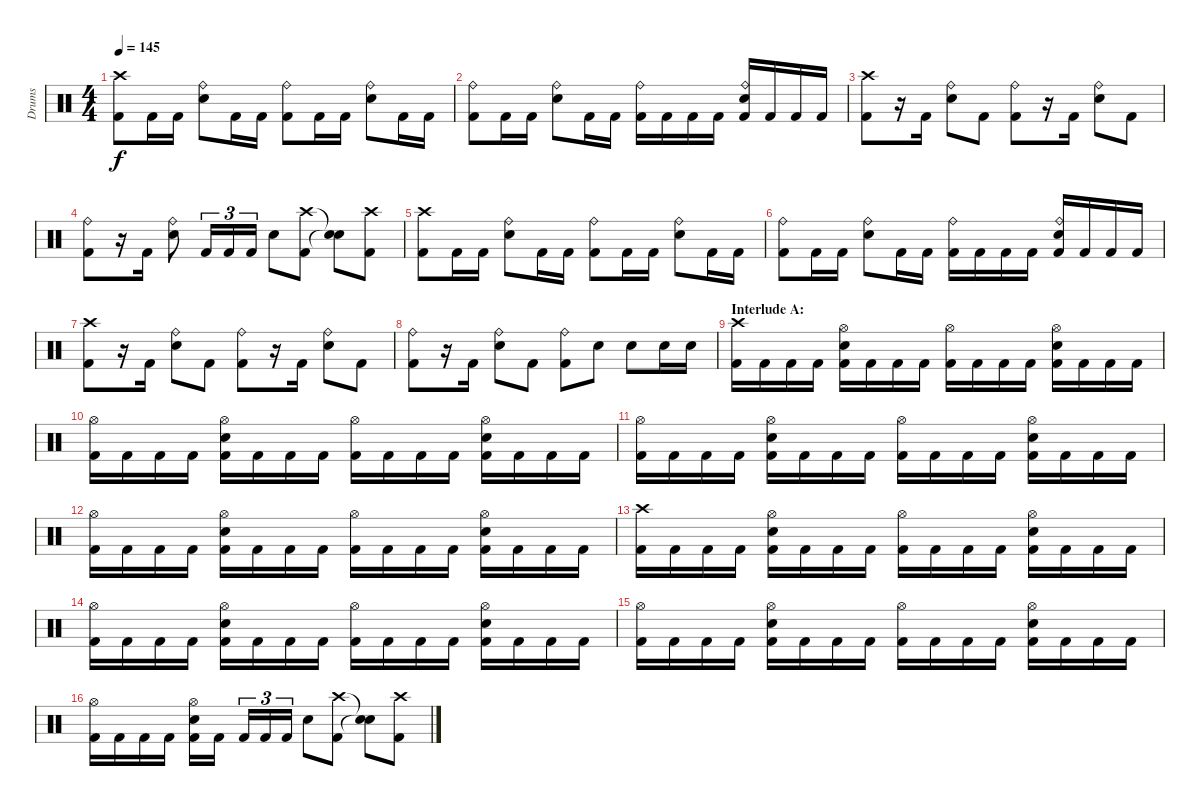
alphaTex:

\track ("Drums" "Drums") {instrument percussion}
\staff {score}
\articulation defaults
\ts (4 4)
\tempo 145
\clef neutral
\ks c
("Crash high (hit)" "Kick (hit) 2").8{dy f} "Kick (hit) 2".16 "Kick (hit) 2".16 ("Ride (bell)" "Snare (hit) 2").8 "Kick (hit) 2".16 "Kick (hit) 2".16 ("Ride (bell)" "Kick (hit) 2").8 "Kick (hit) 2".16 "Kick (hit) 2".16 ("Ride (bell)" "Snare (hit) 2").8 "Kick (hit) 2".16 "Kick (hit) 2".16 |
("Ride (bell)" "Kick (hit) 2").8 "Kick (hit) 2".16 "Kick (hit) 2".16 ("Ride (bell)" "Snare (hit) 2").8 "Kick (hit) 2".16 "Kick (hit) 2".16 ("Ride (bell)" "Kick (hit) 2").16 "Kick (hit) 2".16 "Kick (hit) 2".16 "Kick (hit) 2".16 ("Ride (bell)" "Snare (hit) 2" "Kick (hit) 2").16 "Kick (hit) 2".16 "Kick (hit) 2".16 "Kick (hit) 2".16 |
("Crash high (hit)" "Kick (hit) 2").8 r.16 "Kick (hit) 2".16 ("Ride (bell)" "Snare (hit) 2").8 "Kick (hit) 2".8 ("Ride (bell)" "Kick (hit) 2").8 r.16 "Kick (hit) 2".16 ("Ride (bell)" "Snare (hit) 2").8 "Kick (hit) 2".8 |
("Ride (bell)" "Kick (hit) 2").8 r.16 "Kick (hit) 2".16 ("Ride (bell)" "Snare (hit) 2").8 "Kick (hit) 2".16{tu (3 2)} "Kick (hit) 2".16{tu (3 2)} "Kick (hit) 2".16{tu (3 2)} "Snare (hit) 2".8 ("Crash high (hit)" "Kick (hit) 2").8 ("Snare (hit)"{t} "Snare (hit)"{t}).8 ("Crash high (hit)" "Kick (hit) 2").8 |
("Crash high (hit)" "Kick (hit) 2").8 "Kick (hit) 2".16 "Kick (hit) 2".16 ("Ride (bell)" "Snare (hit) 2").8 "Kick (hit) 2".16 "Kick (hit) 2".16 ("Ride (bell)" "Kick (hit) 2").8 "Kick (hit) 2".16 "Kick (hit) 2".16 ("Ride (bell)" "Snare (hit) 2").8 "Kick (hit) 2".16 "Kick (hit) 2".16 |
("Ride (bell)" "Kick (hit) 2").8 "Kick (hit) 2".16 "Kick (hit) 2".16 ("Ride (bell)" "Snare (hit) 2").8 "Kick (hit) 2".16 "Kick (hit) 2".16 ("Ride (bell)" "Kick (hit) 2").16 "Kick (hit) 2".16 "Kick (hit) 2".16 "Kick (hit) 2".16 ("Ride (bell)" "Snare (hit) 2" "Kick (hit) 2").16 "Kick (hit) 2".16 "Kick (hit) 2".16 "Kick (hit) 2".16 |
("Crash high (hit)" "Kick (hit) 2").8 r.16 "Kick (hit) 2".16 ("Ride (bell)" "Snare (hit) 2").8 "Kick (hit) 2".8 ("Ride (bell)" "Kick (hit) 2").8 r.16 "Kick (hit) 2".16 ("Ride (bell)" "Snare (hit) 2").8 "Kick (hit) 2".8 |
("Ride (bell)" "Kick (hit) 2").8 r.16 "Kick (hit) 2".16 ("Ride (bell)" "Snare (hit) 2").8 "Kick (hit) 2".8 ("Ride (bell)" "Kick (hit) 2").8 "Snare (hit) 2".8 "Snare (hit) 2".8 "Snare (hit) 2".16 "Snare (hit) 2".16 |
\section ("" "Interlude A:")
("Crash high (hit)" "Kick (hit) 2").16 "Kick (hit) 2".16 "Kick (hit) 2".16 "Kick (hit) 2".16 ("Hi-Hat (open)" "Snare (hit) 2" "Kick (hit) 2").16 "Kick (hit) 2".16 "Kick (hit) 2".16 "Kick (hit) 2".16 ("Hi-Hat (open)" "Kick (hit) 2").16 "Kick (hit) 2".16 "Kick (hit) 2".16 "Kick (hit) 2".16 ("Hi-Hat (open)" "Snare (hit) 2" "Kick (hit) 2").16 "Kick (hit) 2".16 "Kick (hit) 2".16 "Kick (hit) 2".16 |
("Hi-Hat (open)" "Kick (hit) 2").16 "Kick (hit) 2".16 "Kick (hit) 2".16 "Kick (hit) 2".16 ("Hi-Hat (open)" "Snare (hit) 2" "Kick (hit) 2").16 "Kick (hit) 2".16 "Kick (hit) 2".16 "Kick (hit) 2".16 ("Hi-Hat (open)" "Kick (hit) 2").16 "Kick (hit) 2".16 "Kick (hit) 2".16 "Kick (hit) 2".16 ("Hi-Hat (open)" "Snare (hit) 2" "Kick (hit) 2").16 "Kick (hit) 2".16 "Kick (hit) 2".16 "Kick (hit) 2".16 |
("Hi-Hat (open)" "Kick (hit) 2").16 "Kick (hit) 2".16 "Kick (hit) 2".16 "Kick (hit) 2".16 ("Hi-Hat (open)" "Snare (hit) 2" "Kick (hit) 2").16 "Kick (hit) 2".16 "Kick (hit) 2".16 "Kick (hit) 2".16 ("Hi-Hat (open)" "Kick (hit) 2").16 "Kick (hit) 2".16 "Kick (hit) 2".16 "Kick (hit) 2".16 ("Hi-Hat (open)" "Snare (hit) 2" "Kick (hit) 2").16 "Kick (hit) 2".16 "Kick (hit) 2".16 "Kick (hit) 2".16 |
("Hi-Hat (open)" "Kick (hit) 2").16 "Kick (hit) 2".16 "Kick (hit) 2".16 "Kick (hit) 2".16 ("Hi-Hat (open)" "Snare (hit) 2" "Kick (hit) 2").16 "Kick (hit) 2".16 "Kick (hit) 2".16 "Kick (hit) 2".16 ("Hi-Hat (open)" "Kick (hit) 2").16 "Kick (hit) 2".16 "Kick (hit) 2".16 "Kick (hit) 2".16 ("Hi-Hat (open)" "Snare (hit) 2" "Kick (hit) 2").16 "Kick (hit) 2".16 "Kick (hit) 2".16 "Kick (hit) 2".16 |
("Crash high (hit)" "Kick (hit) 2").16 "Kick (hit) 2".16 "Kick (hit) 2".16 "Kick (hit) 2".16 ("Hi-Hat (open)" "Snare (hit) 2" "Kick (hit) 2").16 "Kick (hit) 2".16 "Kick (hit) 2".16 "Kick (hit) 2".16 ("Hi-Hat (open)" "Kick (hit) 2").16 "Kick (hit) 2".16 "Kick (hit) 2".16 "Kick (hit) 2".16 ("Hi-Hat (open)" "Snare (hit) 2" "Kick (hit) 2").16 "Kick (hit) 2".16 "Kick (hit) 2".16 "Kick (hit) 2".16 |
("Hi-Hat (open)" "Kick (hit) 2").16 "Kick (hit) 2".16 "Kick (hit) 2".16 "Kick (hit) 2".16 ("Hi-Hat (open)" "Snare (hit) 2" "Kick (hit) 2").16 "Kick (hit) 2".16 "Kick (hit) 2".16 "Kick (hit) 2".16 ("Hi-Hat (open)" "Kick (hit) 2").16 "Kick (hit) 2".16 "Kick (hit) 2".16 "Kick (hit) 2".16 ("Hi-Hat (open)" "Snare (hit) 2" "Kick (hit) 2").16 "Kick (hit) 2".16 "Kick (hit) 2".16 "Kick (hit) 2".16 |
("Hi-Hat (open)" "Kick (hit) 2").16 "Kick (hit) 2".16 "Kick (hit) 2".16 "Kick (hit) 2".16 ("Hi-Hat (open)" "Snare (hit) 2" "Kick (hit) 2").16 "Kick (hit) 2".16 "Kick (hit) 2".16 "Kick (hit) 2".16 ("Hi-Hat (open)" "Kick (hit) 2").16 "Kick (hit) 2".16 "Kick (hit) 2".16 "Kick (hit) 2".16 ("Hi-Hat (open)" "Snare (hit) 2" "Kick (hit) 2").16 "Kick (hit) 2".16 "Kick (hit) 2".16 "Kick (hit) 2".16 |
("Hi-Hat (open)" "Kick (hit) 2").16 "Kick (hit) 2".16 "Kick (hit) 2".16 "Kick (hit) 2".16 ("Hi-Hat (open)" "Snare (hit) 2" "Kick (hit) 2").16 "Kick (hit) 2".16 "Kick (hit) 2".16{tu (3 2)} "Kick (hit) 2".16{tu (3 2)} "Kick (hit) 2".16{tu (3 2)} "Snare (hit) 2".8 ("Crash high (hit)" "Kick (hit) 2").8 ("Snare (hit)"{t} "Snare (hit)"{t}).8 ("Crash high (hit)" "Kick (hit) 2").8
